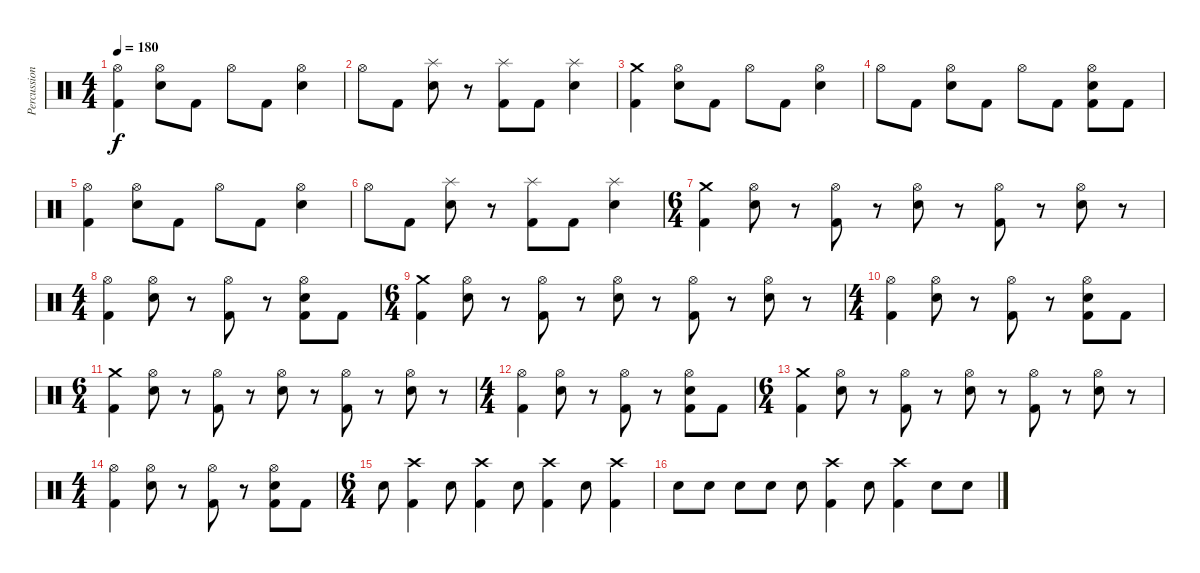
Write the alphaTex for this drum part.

\track ("Percussion" "Percussion") {instrument percussion}
\staff {score}
\articulation defaults
\ts (4 4)
\tempo 180
\clef neutral
\ks c
("Hi-Hat (open)" "Kick (hit) 2").4{dy f} ("Hi-Hat (open)" "Snare (hit) 2").8 "Kick (hit) 2".8 "Hi-Hat (open)".8 "Kick (hit) 2".8 ("Hi-Hat (open)" "Snare (hit) 2").4 |
"Hi-Hat (open)".8 "Kick (hit) 2".8 ("Splash (hit)" "Snare (hit) 2").8 r.8 ("Splash (hit)" "Kick (hit) 2").8 "Kick (hit) 2".8 ("Splash (hit)" "Snare (hit) 2").4 |
("Crash medium (hit)" "Kick (hit) 2").4 ("Hi-Hat (open)" "Snare (hit) 2").8 "Kick (hit) 2".8 "Hi-Hat (open)".8 "Kick (hit) 2".8 ("Hi-Hat (open)" "Snare (hit) 2").4 |
"Hi-Hat (open)".8 "Kick (hit) 2".8 ("Hi-Hat (open)" "Snare (hit) 2").8 "Kick (hit) 2".8 "Hi-Hat (open)".8 "Kick (hit) 2".8 ("Hi-Hat (open)" "Snare (hit) 2" "Kick (hit) 2").8 "Kick (hit) 2".8 |
("Hi-Hat (open)" "Kick (hit) 2").4 ("Hi-Hat (open)" "Snare (hit) 2").8 "Kick (hit) 2".8 "Hi-Hat (open)".8 "Kick (hit) 2".8 ("Hi-Hat (open)" "Snare (hit) 2").4 |
"Hi-Hat (open)".8 "Kick (hit) 2".8 ("Splash (hit)" "Snare (hit) 2").8 r.8 ("Splash (hit)" "Kick (hit) 2").8 "Kick (hit) 2".8 ("Splash (hit)" "Snare (hit) 2").4 |
\ts (6 4)
("Crash medium (hit)" "Kick (hit) 2").4 ("Hi-Hat (open)" "Snare (hit) 2").8 r.8 ("Hi-Hat (open)" "Kick (hit) 2").8 r.8 ("Hi-Hat (open)" "Snare (hit) 2").8 r.8 ("Hi-Hat (open)" "Kick (hit) 2").8 r.8 ("Hi-Hat (open)" "Snare (hit) 2").8 r.8 |
\ts (4 4)
("Hi-Hat (open)" "Kick (hit) 2").4 ("Hi-Hat (open)" "Snare (hit) 2").8 r.8 ("Hi-Hat (open)" "Kick (hit) 2").8 r.8 ("Hi-Hat (open)" "Snare (hit) 2" "Kick (hit) 2").8 "Kick (hit) 2".8 |
\ts (6 4)
("Crash medium (hit)" "Kick (hit) 2").4 ("Hi-Hat (open)" "Snare (hit) 2").8 r.8 ("Hi-Hat (open)" "Kick (hit) 2").8 r.8 ("Hi-Hat (open)" "Snare (hit) 2").8 r.8 ("Hi-Hat (open)" "Kick (hit) 2").8 r.8 ("Hi-Hat (open)" "Snare (hit) 2").8 r.8 |
\ts (4 4)
("Hi-Hat (open)" "Kick (hit) 2").4 ("Hi-Hat (open)" "Snare (hit) 2").8 r.8 ("Hi-Hat (open)" "Kick (hit) 2").8 r.8 ("Hi-Hat (open)" "Snare (hit) 2" "Kick (hit) 2").8 "Kick (hit) 2".8 |
\ts (6 4)
("Crash medium (hit)" "Kick (hit) 2").4 ("Hi-Hat (open)" "Snare (hit) 2").8 r.8 ("Hi-Hat (open)" "Kick (hit) 2").8 r.8 ("Hi-Hat (open)" "Snare (hit) 2").8 r.8 ("Hi-Hat (open)" "Kick (hit) 2").8 r.8 ("Hi-Hat (open)" "Snare (hit) 2").8 r.8 |
\ts (4 4)
("Hi-Hat (open)" "Kick (hit) 2").4 ("Hi-Hat (open)" "Snare (hit) 2").8 r.8 ("Hi-Hat (open)" "Kick (hit) 2").8 r.8 ("Hi-Hat (open)" "Snare (hit) 2" "Kick (hit) 2").8 "Kick (hit) 2".8 |
\ts (6 4)
("Crash medium (hit)" "Kick (hit) 2").4 ("Hi-Hat (open)" "Snare (hit) 2").8 r.8 ("Hi-Hat (open)" "Kick (hit) 2").8 r.8 ("Hi-Hat (open)" "Snare (hit) 2").8 r.8 ("Hi-Hat (open)" "Kick (hit) 2").8 r.8 ("Hi-Hat (open)" "Snare (hit) 2").8 r.8 |
\ts (4 4)
("Hi-Hat (open)" "Kick (hit) 2").4 ("Hi-Hat (open)" "Snare (hit) 2").8 r.8 ("Hi-Hat (open)" "Kick (hit) 2").8 r.8 ("Hi-Hat (open)" "Snare (hit) 2" "Kick (hit) 2").8 "Kick (hit) 2".8 |
\ts (6 4)
"Snare (hit) 2".8 ("Crash high (hit)" "Kick (hit) 2").4 "Snare (hit) 2".8 ("Crash high (hit)" "Kick (hit) 2").4 "Snare (hit) 2".8 ("Crash high (hit)" "Kick (hit) 2").4 "Snare (hit) 2".8 ("Crash high (hit)" "Kick (hit) 2").4 |
"Snare (hit) 2".8 "Snare (hit) 2".8 "Snare (hit) 2".8 "Snare (hit) 2".8 "Snare (hit) 2".8 ("Crash high (hit)" "Kick (hit) 2").4 "Snare (hit) 2".8 ("Crash high (hit)" "Kick (hit) 2").4 "Snare (hit) 2".8 "Snare (hit) 2".8
